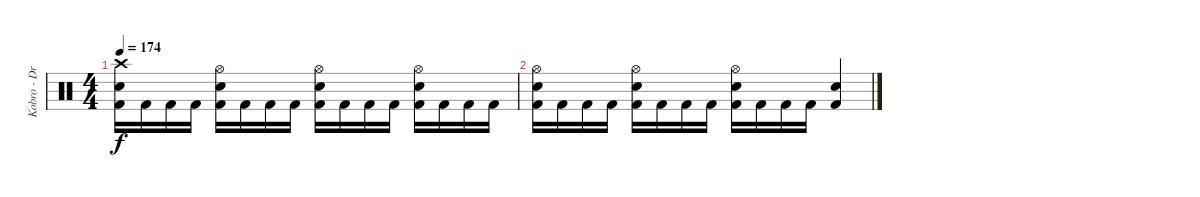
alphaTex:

\track ("Kobro - Drums + Percussion" "Kobro - Dr") {instrument percussion}
\staff {score}
\articulation defaults
\ts (4 4)
\tempo 174
\clef neutral
\ks c
("Crash high (hit)" "Electric Snare (hit)" "Kick (hit) 2").16{dy f} "Kick (hit) 2".16 "Kick (hit) 2".16 "Kick (hit) 2".16 ("Hi-Hat (open)" "Electric Snare (hit)" "Kick (hit) 2").16 "Kick (hit) 2".16 "Kick (hit) 2".16 "Kick (hit) 2".16 ("Hi-Hat (open)" "Electric Snare (hit)" "Kick (hit) 2").16 "Kick (hit) 2".16 "Kick (hit) 2".16 "Kick (hit) 2".16 ("Hi-Hat (open)" "Electric Snare (hit)" "Kick (hit) 2").16 "Kick (hit) 2".16 "Kick (hit) 2".16 "Kick (hit) 2".16 |
("Hi-Hat (open)" "Electric Snare (hit)" "Kick (hit) 2").16 "Kick (hit) 2".16 "Kick (hit) 2".16 "Kick (hit) 2".16 ("Hi-Hat (open)" "Electric Snare (hit)" "Kick (hit) 2").16 "Kick (hit) 2".16 "Kick (hit) 2".16 "Kick (hit) 2".16 ("Hi-Hat (open)" "Electric Snare (hit)" "Kick (hit) 2").16 "Kick (hit) 2".16 "Kick (hit) 2".16 "Kick (hit) 2".16 ("Electric Snare (hit)" "Kick (hit) 2").4
